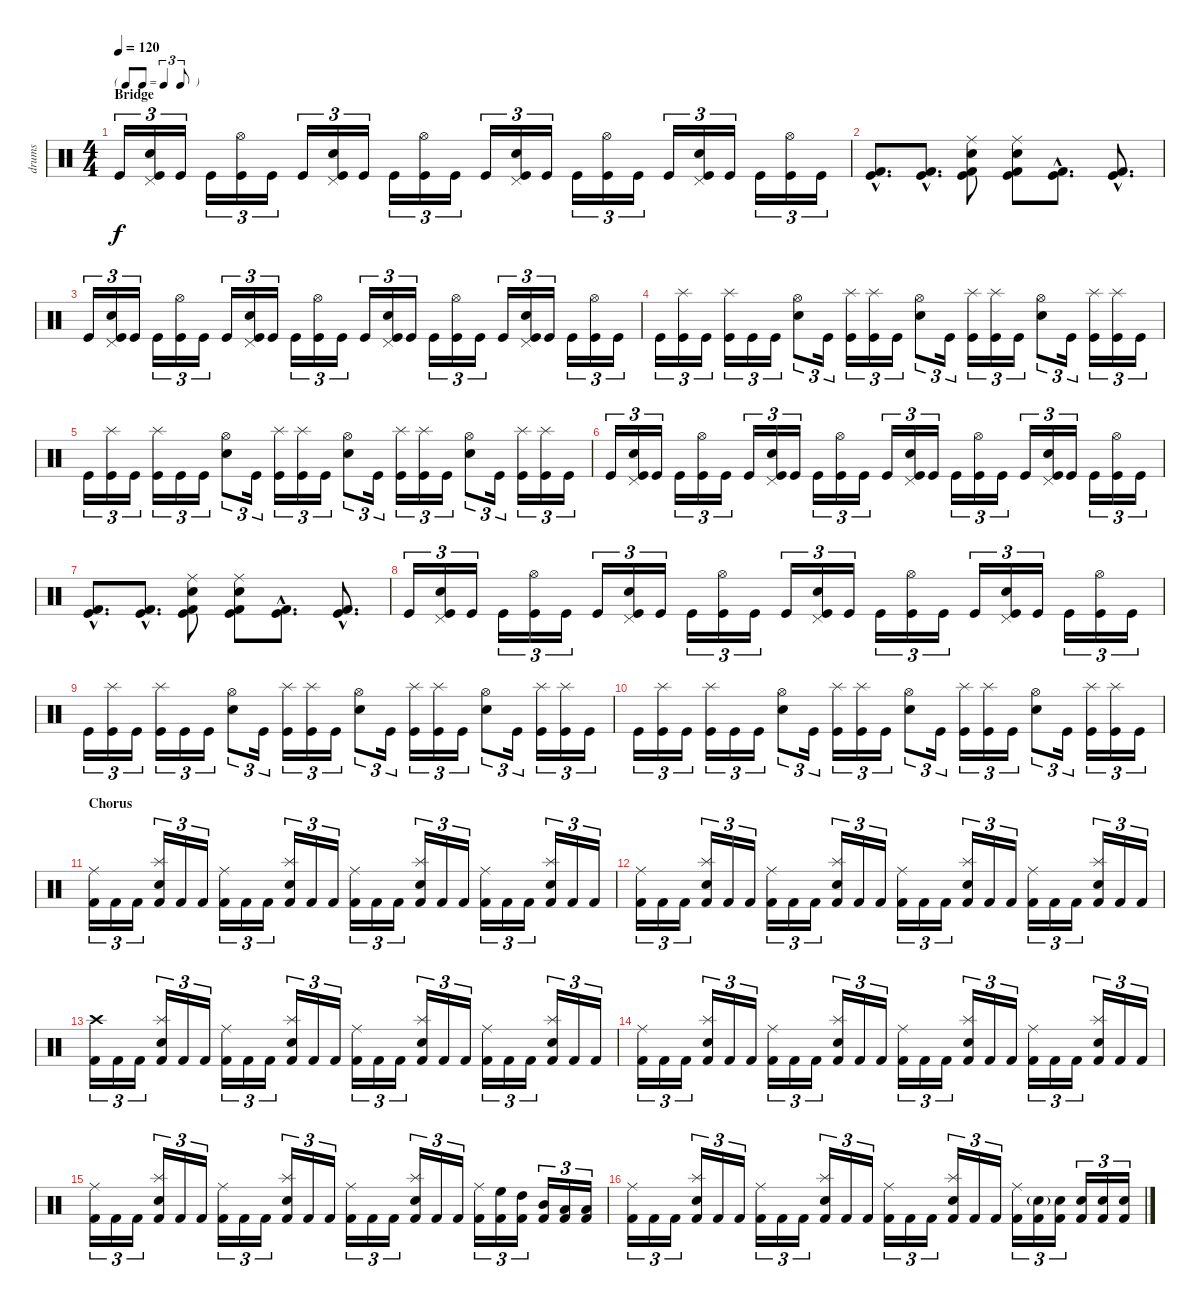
\track ("drums" "drums") {instrument percussion}
\staff {score}
\articulation defaults
\ts (4 4)
\tf triplet8th
\section ("" "Bridge")
\tempo 120
\clef neutral
\ks c "Kick (hit)".16{tu (3 2) dy f}
("Pedal Hi-Hat (hit)" "Electric Snare (hit)" "Kick (hit)").16{tu (3 2)} "Kick (hit)".16{tu (3 2)} "Kick (hit)".16{tu (3 2)} ("Hi-Hat (open)" "Kick (hit)").16{tu (3 2)} "Kick (hit)".16{tu (3 2)} "Kick (hit)".16{tu (3 2)} ("Pedal Hi-Hat (hit)" "Electric Snare (hit)" "Kick (hit)").16{tu (3 2)} "Kick (hit)".16{tu (3 2)} "Kick (hit)".16{tu (3 2)} ("Hi-Hat (open)" "Kick (hit)").16{tu (3 2)} "Kick (hit)".16{tu (3 2)} "Kick (hit)".16{tu (3 2)} ("Pedal Hi-Hat (hit)" "Electric Snare (hit)" "Kick (hit)").16{tu (3 2)} "Kick (hit)".16{tu (3 2)} "Kick (hit)".16{tu (3 2)} ("Hi-Hat (open)" "Kick (hit)").16{tu (3 2)} "Kick (hit)".16{tu (3 2)} "Kick (hit)".16{tu (3 2)} ("Pedal Hi-Hat (hit)" "Electric Snare (hit)" "Kick (hit)").16{tu (3 2)} "Kick (hit)".16{tu (3 2)} "Kick (hit)".16{tu (3 2)} ("Hi-Hat (open)" "Kick (hit)").16{tu (3 2)} "Kick (hit)".16{tu (3 2)} |
("Kick (hit) 2"{hac} "Kick (hit)"{hac}).8{d} ("Kick (hit) 2"{hac} "Kick (hit)"{hac}).8{d} ("Ride (middle)" "Electric Snare (hit)" "Kick (hit)" "Kick (hit) 2").8 ("Ride (middle)" "Electric Snare (hit)" "Kick (hit)" "Kick (hit) 2").8 ("Kick (hit) 2"{hac} "Kick (hit)"{hac}).8{d} ("Kick (hit) 2"{hac} "Kick (hit)"{hac}).8{d} |
"Kick (hit)".16{tu (3 2)} ("Pedal Hi-Hat (hit)" "Electric Snare (hit)" "Kick (hit)").16{tu (3 2)} "Kick (hit)".16{tu (3 2)} "Kick (hit)".16{tu (3 2)} ("Hi-Hat (open)" "Kick (hit)").16{tu (3 2)} "Kick (hit)".16{tu (3 2)} "Kick (hit)".16{tu (3 2)} ("Pedal Hi-Hat (hit)" "Electric Snare (hit)" "Kick (hit)").16{tu (3 2)} "Kick (hit)".16{tu (3 2)} "Kick (hit)".16{tu (3 2)} ("Hi-Hat (open)" "Kick (hit)").16{tu (3 2)} "Kick (hit)".16{tu (3 2)} "Kick (hit)".16{tu (3 2)} ("Pedal Hi-Hat (hit)" "Electric Snare (hit)" "Kick (hit)").16{tu (3 2)} "Kick (hit)".16{tu (3 2)} "Kick (hit)".16{tu (3 2)} ("Hi-Hat (open)" "Kick (hit)").16{tu (3 2)} "Kick (hit)".16{tu (3 2)} "Kick (hit)".16{tu (3 2)} ("Pedal Hi-Hat (hit)" "Electric Snare (hit)" "Kick (hit)").16{tu (3 2)} "Kick (hit)".16{tu (3 2)} "Kick (hit)".16{tu (3 2)} ("Hi-Hat (open)" "Kick (hit)").16{tu (3 2)} "Kick (hit)".16{tu (3 2)} |
"Kick (hit)".16{tu (3 2)} ("Splash (hit)" "Kick (hit)").16{tu (3 2)} "Kick (hit)".16{tu (3 2)} ("Splash (hit)" "Kick (hit)").16{tu (3 2)} "Kick (hit)".16{tu (3 2)} "Kick (hit)".16{tu (3 2)} ("Hi-Hat (open)" "Electric Snare (hit)").8{tu (3 2)} "Kick (hit)".16{tu (3 2)} ("Splash (hit)" "Kick (hit)").16{tu (3 2)} ("Splash (hit)" "Kick (hit)").16{tu (3 2)} "Kick (hit)".16{tu (3 2)} ("Hi-Hat (open)" "Electric Snare (hit)").8{tu (3 2)} "Kick (hit)".16{tu (3 2)} ("Splash (hit)" "Kick (hit)").16{tu (3 2)} ("Splash (hit)" "Kick (hit)").16{tu (3 2)} "Kick (hit)".16{tu (3 2)} ("Hi-Hat (open)" "Electric Snare (hit)").8{tu (3 2)} "Kick (hit)".16{tu (3 2)} ("Splash (hit)" "Kick (hit)").16{tu (3 2)} ("Splash (hit)" "Kick (hit)").16{tu (3 2)} "Kick (hit)".16{tu (3 2)} |
"Kick (hit)".16{tu (3 2)} ("Splash (hit)" "Kick (hit)").16{tu (3 2)} "Kick (hit)".16{tu (3 2)} ("Splash (hit)" "Kick (hit)").16{tu (3 2)} "Kick (hit)".16{tu (3 2)} "Kick (hit)".16{tu (3 2)} ("Hi-Hat (open)" "Electric Snare (hit)").8{tu (3 2)} "Kick (hit)".16{tu (3 2)} ("Splash (hit)" "Kick (hit)").16{tu (3 2)} ("Splash (hit)" "Kick (hit)").16{tu (3 2)} "Kick (hit)".16{tu (3 2)} ("Hi-Hat (open)" "Electric Snare (hit)").8{tu (3 2)} "Kick (hit)".16{tu (3 2)} ("Splash (hit)" "Kick (hit)").16{tu (3 2)} ("Splash (hit)" "Kick (hit)").16{tu (3 2)} "Kick (hit)".16{tu (3 2)} ("Hi-Hat (open)" "Electric Snare (hit)").8{tu (3 2)} "Kick (hit)".16{tu (3 2)} ("Splash (hit)" "Kick (hit)").16{tu (3 2)} ("Splash (hit)" "Kick (hit)").16{tu (3 2)} "Kick (hit)".16{tu (3 2)} |
"Kick (hit)".16{tu (3 2)} ("Pedal Hi-Hat (hit)" "Electric Snare (hit)" "Kick (hit)").16{tu (3 2)} "Kick (hit)".16{tu (3 2)} "Kick (hit)".16{tu (3 2)} ("Hi-Hat (open)" "Kick (hit)").16{tu (3 2)} "Kick (hit)".16{tu (3 2)} "Kick (hit)".16{tu (3 2)} ("Pedal Hi-Hat (hit)" "Electric Snare (hit)" "Kick (hit)").16{tu (3 2)} "Kick (hit)".16{tu (3 2)} "Kick (hit)".16{tu (3 2)} ("Hi-Hat (open)" "Kick (hit)").16{tu (3 2)} "Kick (hit)".16{tu (3 2)} "Kick (hit)".16{tu (3 2)} ("Pedal Hi-Hat (hit)" "Electric Snare (hit)" "Kick (hit)").16{tu (3 2)} "Kick (hit)".16{tu (3 2)} "Kick (hit)".16{tu (3 2)} ("Hi-Hat (open)" "Kick (hit)").16{tu (3 2)} "Kick (hit)".16{tu (3 2)} "Kick (hit)".16{tu (3 2)} ("Pedal Hi-Hat (hit)" "Electric Snare (hit)" "Kick (hit)").16{tu (3 2)} "Kick (hit)".16{tu (3 2)} "Kick (hit)".16{tu (3 2)} ("Hi-Hat (open)" "Kick (hit)").16{tu (3 2)} "Kick (hit)".16{tu (3 2)} |
("Kick (hit) 2"{hac} "Kick (hit)"{hac}).8{d} ("Kick (hit) 2"{hac} "Kick (hit)"{hac}).8{d} ("Ride (middle)" "Electric Snare (hit)" "Kick (hit)" "Kick (hit) 2").8 ("Ride (middle)" "Electric Snare (hit)" "Kick (hit)" "Kick (hit) 2").8 ("Kick (hit) 2"{hac} "Kick (hit)"{hac}).8{d} ("Kick (hit) 2"{hac} "Kick (hit)"{hac}).8{d} |
"Kick (hit)".16{tu (3 2)} ("Pedal Hi-Hat (hit)" "Electric Snare (hit)" "Kick (hit)").16{tu (3 2)} "Kick (hit)".16{tu (3 2)} "Kick (hit)".16{tu (3 2)} ("Hi-Hat (open)" "Kick (hit)").16{tu (3 2)} "Kick (hit)".16{tu (3 2)} "Kick (hit)".16{tu (3 2)} ("Pedal Hi-Hat (hit)" "Electric Snare (hit)" "Kick (hit)").16{tu (3 2)} "Kick (hit)".16{tu (3 2)} "Kick (hit)".16{tu (3 2)} ("Hi-Hat (open)" "Kick (hit)").16{tu (3 2)} "Kick (hit)".16{tu (3 2)} "Kick (hit)".16{tu (3 2)} ("Pedal Hi-Hat (hit)" "Electric Snare (hit)" "Kick (hit)").16{tu (3 2)} "Kick (hit)".16{tu (3 2)} "Kick (hit)".16{tu (3 2)} ("Hi-Hat (open)" "Kick (hit)").16{tu (3 2)} "Kick (hit)".16{tu (3 2)} "Kick (hit)".16{tu (3 2)} ("Pedal Hi-Hat (hit)" "Electric Snare (hit)" "Kick (hit)").16{tu (3 2)} "Kick (hit)".16{tu (3 2)} "Kick (hit)".16{tu (3 2)} ("Hi-Hat (open)" "Kick (hit)").16{tu (3 2)} "Kick (hit)".16{tu (3 2)} |
"Kick (hit)".16{tu (3 2)} ("Splash (hit)" "Kick (hit)").16{tu (3 2)} "Kick (hit)".16{tu (3 2)} ("Splash (hit)" "Kick (hit)").16{tu (3 2)} "Kick (hit)".16{tu (3 2)} "Kick (hit)".16{tu (3 2)} ("Hi-Hat (open)" "Electric Snare (hit)").8{tu (3 2)} "Kick (hit)".16{tu (3 2)} ("Splash (hit)" "Kick (hit)").16{tu (3 2)} ("Splash (hit)" "Kick (hit)").16{tu (3 2)} "Kick (hit)".16{tu (3 2)} ("Hi-Hat (open)" "Electric Snare (hit)").8{tu (3 2)} "Kick (hit)".16{tu (3 2)} ("Splash (hit)" "Kick (hit)").16{tu (3 2)} ("Splash (hit)" "Kick (hit)").16{tu (3 2)} "Kick (hit)".16{tu (3 2)} ("Hi-Hat (open)" "Electric Snare (hit)").8{tu (3 2)} "Kick (hit)".16{tu (3 2)} ("Splash (hit)" "Kick (hit)").16{tu (3 2)} ("Splash (hit)" "Kick (hit)").16{tu (3 2)} "Kick (hit)".16{tu (3 2)} |
"Kick (hit)".16{tu (3 2)} ("Splash (hit)" "Kick (hit)").16{tu (3 2)} "Kick (hit)".16{tu (3 2)} ("Splash (hit)" "Kick (hit)").16{tu (3 2)} "Kick (hit)".16{tu (3 2)} "Kick (hit)".16{tu (3 2)} ("Hi-Hat (open)" "Electric Snare (hit)").8{tu (3 2)} "Kick (hit)".16{tu (3 2)} ("Splash (hit)" "Kick (hit)").16{tu (3 2)} ("Splash (hit)" "Kick (hit)").16{tu (3 2)} "Kick (hit)".16{tu (3 2)} ("Hi-Hat (open)" "Electric Snare (hit)").8{tu (3 2)} "Kick (hit)".16{tu (3 2)} ("Splash (hit)" "Kick (hit)").16{tu (3 2)} ("Splash (hit)" "Kick (hit)").16{tu (3 2)} "Kick (hit)".16{tu (3 2)} ("Hi-Hat (open)" "Electric Snare (hit)").8{tu (3 2)} "Kick (hit)".16{tu (3 2)} ("Splash (hit)" "Kick (hit)").16{tu (3 2)} ("Splash (hit)" "Kick (hit)").16{tu (3 2)} "Kick (hit)".16{tu (3 2)} |
\section ("" "Chorus")
("Ride (middle)" "Kick (hit) 2").16{tu (3 2)} "Kick (hit) 2".16{tu (3 2)} "Kick (hit) 2".16{tu (3 2)} ("Splash (hit)" "Snare (hit) 2" "Kick (hit) 2").16{tu (3 2)} "Kick (hit) 2".16{tu (3 2)} "Kick (hit) 2".16{tu (3 2)} ("Ride (middle)" "Kick (hit) 2").16{tu (3 2)} "Kick (hit) 2".16{tu (3 2)} "Kick (hit) 2".16{tu (3 2)} ("Splash (hit)" "Snare (hit) 2" "Kick (hit) 2").16{tu (3 2)} "Kick (hit) 2".16{tu (3 2)} "Kick (hit) 2".16{tu (3 2)} ("Ride (middle)" "Kick (hit) 2").16{tu (3 2)} "Kick (hit) 2".16{tu (3 2)} "Kick (hit) 2".16{tu (3 2)} ("Splash (hit)" "Snare (hit) 2" "Kick (hit) 2").16{tu (3 2)} "Kick (hit) 2".16{tu (3 2)} "Kick (hit) 2".16{tu (3 2)} ("Ride (middle)" "Kick (hit) 2").16{tu (3 2)} "Kick (hit) 2".16{tu (3 2)} "Kick (hit) 2".16{tu (3 2)} ("Splash (hit)" "Snare (hit) 2" "Kick (hit) 2").16{tu (3 2)} "Kick (hit) 2".16{tu (3 2)} "Kick (hit) 2".16{tu (3 2)} |
("Ride (middle)" "Kick (hit) 2").16{tu (3 2)} "Kick (hit) 2".16{tu (3 2)} "Kick (hit) 2".16{tu (3 2)} ("Splash (hit)" "Snare (hit) 2" "Kick (hit) 2").16{tu (3 2)} "Kick (hit) 2".16{tu (3 2)} "Kick (hit) 2".16{tu (3 2)} ("Ride (middle)" "Kick (hit) 2").16{tu (3 2)} "Kick (hit) 2".16{tu (3 2)} "Kick (hit) 2".16{tu (3 2)} ("Splash (hit)" "Snare (hit) 2" "Kick (hit) 2").16{tu (3 2)} "Kick (hit) 2".16{tu (3 2)} "Kick (hit) 2".16{tu (3 2)} ("Ride (middle)" "Kick (hit) 2").16{tu (3 2)} "Kick (hit) 2".16{tu (3 2)} "Kick (hit) 2".16{tu (3 2)} ("Splash (hit)" "Snare (hit) 2" "Kick (hit) 2").16{tu (3 2)} "Kick (hit) 2".16{tu (3 2)} "Kick (hit) 2".16{tu (3 2)} ("Ride (middle)" "Kick (hit) 2").16{tu (3 2)} "Kick (hit) 2".16{tu (3 2)} "Kick (hit) 2".16{tu (3 2)} ("Splash (hit)" "Snare (hit) 2" "Kick (hit) 2").16{tu (3 2)} "Kick (hit) 2".16{tu (3 2)} "Kick (hit) 2".16{tu (3 2)} |
("Crash high (hit)" "Kick (hit) 2").16{tu (3 2)} "Kick (hit) 2".16{tu (3 2)} "Kick (hit) 2".16{tu (3 2)} ("Splash (hit)" "Snare (hit) 2" "Kick (hit) 2").16{tu (3 2)} "Kick (hit) 2".16{tu (3 2)} "Kick (hit) 2".16{tu (3 2)} ("Ride (middle)" "Kick (hit) 2").16{tu (3 2)} "Kick (hit) 2".16{tu (3 2)} "Kick (hit) 2".16{tu (3 2)} ("Splash (hit)" "Snare (hit) 2" "Kick (hit) 2").16{tu (3 2)} "Kick (hit) 2".16{tu (3 2)} "Kick (hit) 2".16{tu (3 2)} ("Ride (middle)" "Kick (hit) 2").16{tu (3 2)} "Kick (hit) 2".16{tu (3 2)} "Kick (hit) 2".16{tu (3 2)} ("Splash (hit)" "Snare (hit) 2" "Kick (hit) 2").16{tu (3 2)} "Kick (hit) 2".16{tu (3 2)} "Kick (hit) 2".16{tu (3 2)} ("Ride (middle)" "Kick (hit) 2").16{tu (3 2)} "Kick (hit) 2".16{tu (3 2)} "Kick (hit) 2".16{tu (3 2)} ("Splash (hit)" "Snare (hit) 2" "Kick (hit) 2").16{tu (3 2)} "Kick (hit) 2".16{tu (3 2)} "Kick (hit) 2".16{tu (3 2)} |
("Ride (middle)" "Kick (hit) 2").16{tu (3 2)} "Kick (hit) 2".16{tu (3 2)} "Kick (hit) 2".16{tu (3 2)} ("Splash (hit)" "Snare (hit) 2" "Kick (hit) 2").16{tu (3 2)} "Kick (hit) 2".16{tu (3 2)} "Kick (hit) 2".16{tu (3 2)} ("Ride (middle)" "Kick (hit) 2").16{tu (3 2)} "Kick (hit) 2".16{tu (3 2)} "Kick (hit) 2".16{tu (3 2)} ("Splash (hit)" "Snare (hit) 2" "Kick (hit) 2").16{tu (3 2)} "Kick (hit) 2".16{tu (3 2)} "Kick (hit) 2".16{tu (3 2)} ("Ride (middle)" "Kick (hit) 2").16{tu (3 2)} "Kick (hit) 2".16{tu (3 2)} "Kick (hit) 2".16{tu (3 2)} ("Splash (hit)" "Snare (hit) 2" "Kick (hit) 2").16{tu (3 2)} "Kick (hit) 2".16{tu (3 2)} "Kick (hit) 2".16{tu (3 2)} ("Ride (middle)" "Kick (hit) 2").16{tu (3 2)} "Kick (hit) 2".16{tu (3 2)} "Kick (hit) 2".16{tu (3 2)} ("Splash (hit)" "Snare (hit) 2" "Kick (hit) 2").16{tu (3 2)} "Kick (hit) 2".16{tu (3 2)} "Kick (hit) 2".16{tu (3 2)} |
("Ride (middle)" "Kick (hit) 2").16{tu (3 2)} "Kick (hit) 2".16{tu (3 2)} "Kick (hit) 2".16{tu (3 2)} ("Splash (hit)" "Snare (hit) 2" "Kick (hit) 2").16{tu (3 2)} "Kick (hit) 2".16{tu (3 2)} "Kick (hit) 2".16{tu (3 2)} ("Ride (middle)" "Kick (hit) 2").16{tu (3 2)} "Kick (hit) 2".16{tu (3 2)} "Kick (hit) 2".16{tu (3 2)} ("Splash (hit)" "Snare (hit) 2" "Kick (hit) 2").16{tu (3 2)} "Kick (hit) 2".16{tu (3 2)} "Kick (hit) 2".16{tu (3 2)} ("Ride (middle)" "Kick (hit) 2").16{tu (3 2)} "Kick (hit) 2".16{tu (3 2)} "Kick (hit) 2".16{tu (3 2)} ("Splash (hit)" "Snare (hit) 2" "Kick (hit) 2").16{tu (3 2)} "Kick (hit) 2".16{tu (3 2)} "Kick (hit) 2".16{tu (3 2)} ("Ride (middle)" "Kick (hit) 2").16{tu (3 2)} ("High Floor Tom (hit)" "Kick (hit) 2").16{tu (3 2)} ("High Tom (hit)" "Kick (hit) 2").16{tu (3 2)} ("Mid Tom (hit)" "Kick (hit) 2").16{tu (3 2)} ("Low Tom (hit)" "Kick (hit) 2").16{tu (3 2)} ("Low Floor Tom (hit)" "Kick (hit) 2").16{tu (3 2)} |
("Ride (middle)" "Kick (hit) 2").16{tu (3 2)} "Kick (hit) 2".16{tu (3 2)} "Kick (hit) 2".16{tu (3 2)} ("Splash (hit)" "Snare (hit) 2" "Kick (hit) 2").16{tu (3 2)} "Kick (hit) 2".16{tu (3 2)} "Kick (hit) 2".16{tu (3 2)} ("Ride (middle)" "Kick (hit) 2").16{tu (3 2)} "Kick (hit) 2".16{tu (3 2)} "Kick (hit) 2".16{tu (3 2)} ("Splash (hit)" "Snare (hit) 2" "Kick (hit) 2").16{tu (3 2)} "Kick (hit) 2".16{tu (3 2)} "Kick (hit) 2".16{tu (3 2)} ("Ride (middle)" "Kick (hit) 2").16{tu (3 2)} "Kick (hit) 2".16{tu (3 2)} "Kick (hit) 2".16{tu (3 2)} ("Splash (hit)" "Snare (hit) 2" "Kick (hit) 2").16{tu (3 2)} "Kick (hit) 2".16{tu (3 2)} "Kick (hit) 2".16{tu (3 2)} ("Ride (middle)" "Kick (hit) 2").16{tu (3 2)} ("Electric Snare (hit)"{g} "Kick (hit) 2").16{tu (3 2)} ("Snare (hit) 2" "Kick (hit) 2").16{tu (3 2)} ("Snare (hit) 2" "Kick (hit) 2").16{tu (3 2)} ("Snare (hit) 2" "Kick (hit) 2").16{tu (3 2)} ("Snare (hit) 2" "Kick (hit) 2").16{tu (3 2)}
